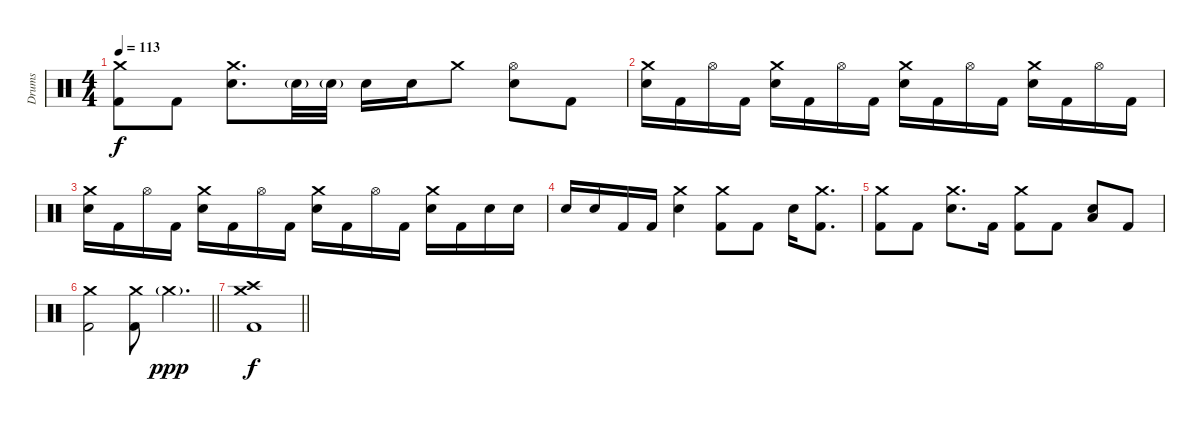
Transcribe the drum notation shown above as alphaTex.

\track ("Drums" "Drums") {instrument percussion}
\staff {score}
\articulation defaults
\ts (4 4)
\tempo 113
\clef neutral
\ks c
("Crash medium (hit)" "Kick (hit) 2").8{dy f} "Kick (hit) 2".8 ("Crash medium (hit)" "Electric Snare (hit)").8{d} "Electric Snare (hit)"{g}.32 "Electric Snare (hit)"{g}.32 "Electric Snare (hit)".16 "Electric Snare (hit)".16 "Crash medium (hit)".8 ("Hi-Hat (open)" "Electric Snare (hit)").8 "Kick (hit) 2".8 |
("Crash medium (hit)" "Electric Snare (hit)").16 "Kick (hit) 2".16 "Hi-Hat (open)".16 "Kick (hit) 2".16 ("Crash medium (hit)" "Electric Snare (hit)").16 "Kick (hit) 2".16 "Hi-Hat (open)".16 "Kick (hit) 2".16 ("Crash medium (hit)" "Electric Snare (hit)").16 "Kick (hit) 2".16 "Hi-Hat (open)".16 "Kick (hit) 2".16 ("Crash medium (hit)" "Electric Snare (hit)").16 "Kick (hit) 2".16 "Hi-Hat (open)".16 "Kick (hit) 2".16 |
("Crash medium (hit)" "Electric Snare (hit)").16 "Kick (hit) 2".16 "Hi-Hat (open)".16 "Kick (hit) 2".16 ("Crash medium (hit)" "Electric Snare (hit)").16 "Kick (hit) 2".16 "Hi-Hat (open)".16 "Kick (hit) 2".16 ("Crash medium (hit)" "Electric Snare (hit)").16 "Kick (hit) 2".16 "Hi-Hat (open)".16 "Kick (hit) 2".16 ("Crash medium (hit)" "Electric Snare (hit)").16 "Kick (hit) 2".16 "Electric Snare (hit)".16 "Electric Snare (hit)".16 |
"Electric Snare (hit)".16 "Electric Snare (hit)".16 "Kick (hit) 2".16 "Kick (hit) 2".16 ("Crash medium (hit)" "Electric Snare (hit)").4 ("Crash medium (hit)" "Kick (hit) 2").8 "Kick (hit) 2".8 "Electric Snare (hit)".16 ("Crash medium (hit)" "Kick (hit) 2").8{d} |
("Crash medium (hit)" "Kick (hit) 2").8 "Kick (hit) 2".8 ("Crash medium (hit)" "Electric Snare (hit)").8{d} "Kick (hit) 2".16 ("Crash medium (hit)" "Kick (hit) 2").8 "Kick (hit) 2".8 ("Low Floor Tom (hit)" "Electric Snare (hit)").8 "Kick (hit) 2".8 |
\barLineRight lightlight
("Crash medium (hit)" "Kick (hit) 2").2 ("Crash medium (hit)" "Kick (hit) 2").8 "Crash medium (hit)"{g}.4{d dy ppp} |
\barLineRight lightlight
("Crash medium (hit)" "Crash high (hit)" "Kick (hit) 2").1{dy f}
